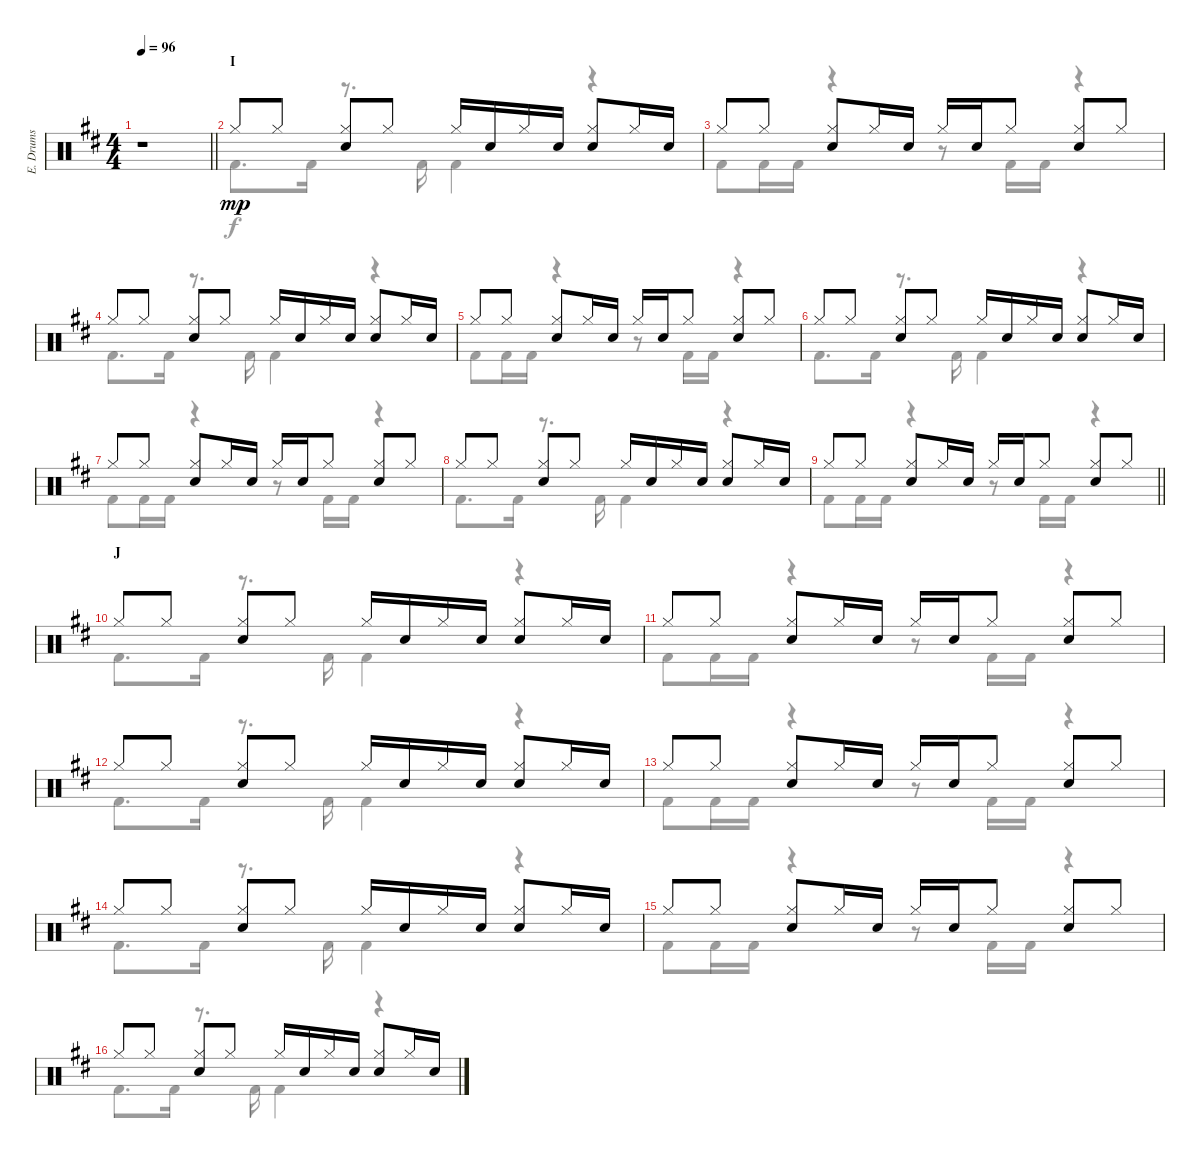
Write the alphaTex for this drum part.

\track ("E. Drums" "E. Drums") {instrument percussion}
\staff {score}
\articulation defaults
\voice
\ts (4 4)
\tempo 96
\clef neutral
\barLineRight lightlight
\ks d
r.1{dy mp} |
\section ("" "I")
"Hi-Hat (closed)".8 "Hi-Hat (closed)".8 ("Hi-Hat (closed)" "Electric Snare (hit)").8 "Hi-Hat (closed)".8 "Hi-Hat (closed)".16 "Electric Snare (hit)".16 "Hi-Hat (closed)".16 "Electric Snare (hit)".16 ("Hi-Hat (closed)" "Electric Snare (hit)").8 "Hi-Hat (closed)".16 "Electric Snare (hit)".16 |
"Hi-Hat (closed)".8 "Hi-Hat (closed)".8 ("Hi-Hat (closed)" "Electric Snare (hit)").8 "Hi-Hat (closed)".16 "Electric Snare (hit)".16 "Hi-Hat (closed)".16 "Electric Snare (hit)".16 "Hi-Hat (closed)".8 ("Hi-Hat (closed)" "Electric Snare (hit)").8 "Hi-Hat (closed)".8 |
"Hi-Hat (closed)".8 "Hi-Hat (closed)".8 ("Hi-Hat (closed)" "Electric Snare (hit)").8 "Hi-Hat (closed)".8 "Hi-Hat (closed)".16 "Electric Snare (hit)".16 "Hi-Hat (closed)".16 "Electric Snare (hit)".16 ("Hi-Hat (closed)" "Electric Snare (hit)").8 "Hi-Hat (closed)".16 "Electric Snare (hit)".16 |
"Hi-Hat (closed)".8 "Hi-Hat (closed)".8 ("Hi-Hat (closed)" "Electric Snare (hit)").8 "Hi-Hat (closed)".16 "Electric Snare (hit)".16 "Hi-Hat (closed)".16 "Electric Snare (hit)".16 "Hi-Hat (closed)".8 ("Hi-Hat (closed)" "Electric Snare (hit)").8 "Hi-Hat (closed)".8 |
"Hi-Hat (closed)".8 "Hi-Hat (closed)".8 ("Hi-Hat (closed)" "Electric Snare (hit)").8 "Hi-Hat (closed)".8 "Hi-Hat (closed)".16 "Electric Snare (hit)".16 "Hi-Hat (closed)".16 "Electric Snare (hit)".16 ("Hi-Hat (closed)" "Electric Snare (hit)").8 "Hi-Hat (closed)".16 "Electric Snare (hit)".16 |
"Hi-Hat (closed)".8 "Hi-Hat (closed)".8 ("Hi-Hat (closed)" "Electric Snare (hit)").8 "Hi-Hat (closed)".16 "Electric Snare (hit)".16 "Hi-Hat (closed)".16 "Electric Snare (hit)".16 "Hi-Hat (closed)".8 ("Hi-Hat (closed)" "Electric Snare (hit)").8 "Hi-Hat (closed)".8 |
"Hi-Hat (closed)".8 "Hi-Hat (closed)".8 ("Hi-Hat (closed)" "Electric Snare (hit)").8 "Hi-Hat (closed)".8 "Hi-Hat (closed)".16 "Electric Snare (hit)".16 "Hi-Hat (closed)".16 "Electric Snare (hit)".16 ("Hi-Hat (closed)" "Electric Snare (hit)").8 "Hi-Hat (closed)".16 "Electric Snare (hit)".16 |
\barLineRight lightlight "Hi-Hat (closed)".8 "Hi-Hat (closed)".8
("Hi-Hat (closed)" "Electric Snare (hit)").8 "Hi-Hat (closed)".16 "Electric Snare (hit)".16 "Hi-Hat (closed)".16 "Electric Snare (hit)".16 "Hi-Hat (closed)".8 ("Hi-Hat (closed)" "Electric Snare (hit)").8 "Hi-Hat (closed)".8 |
\section ("" "J")
"Hi-Hat (closed)".8 "Hi-Hat (closed)".8 ("Hi-Hat (closed)" "Electric Snare (hit)").8 "Hi-Hat (closed)".8 "Hi-Hat (closed)".16 "Electric Snare (hit)".16 "Hi-Hat (closed)".16 "Electric Snare (hit)".16 ("Hi-Hat (closed)" "Electric Snare (hit)").8 "Hi-Hat (closed)".16 "Electric Snare (hit)".16 |
"Hi-Hat (closed)".8 "Hi-Hat (closed)".8 ("Hi-Hat (closed)" "Electric Snare (hit)").8 "Hi-Hat (closed)".16 "Electric Snare (hit)".16 "Hi-Hat (closed)".16 "Electric Snare (hit)".16 "Hi-Hat (closed)".8 ("Hi-Hat (closed)" "Electric Snare (hit)").8 "Hi-Hat (closed)".8 |
"Hi-Hat (closed)".8 "Hi-Hat (closed)".8 ("Hi-Hat (closed)" "Electric Snare (hit)").8 "Hi-Hat (closed)".8 "Hi-Hat (closed)".16 "Electric Snare (hit)".16 "Hi-Hat (closed)".16 "Electric Snare (hit)".16 ("Hi-Hat (closed)" "Electric Snare (hit)").8 "Hi-Hat (closed)".16 "Electric Snare (hit)".16 |
"Hi-Hat (closed)".8 "Hi-Hat (closed)".8 ("Hi-Hat (closed)" "Electric Snare (hit)").8 "Hi-Hat (closed)".16 "Electric Snare (hit)".16 "Hi-Hat (closed)".16 "Electric Snare (hit)".16 "Hi-Hat (closed)".8 ("Hi-Hat (closed)" "Electric Snare (hit)").8 "Hi-Hat (closed)".8 |
"Hi-Hat (closed)".8 "Hi-Hat (closed)".8 ("Hi-Hat (closed)" "Electric Snare (hit)").8 "Hi-Hat (closed)".8 "Hi-Hat (closed)".16 "Electric Snare (hit)".16 "Hi-Hat (closed)".16 "Electric Snare (hit)".16 ("Hi-Hat (closed)" "Electric Snare (hit)").8 "Hi-Hat (closed)".16 "Electric Snare (hit)".16 |
"Hi-Hat (closed)".8 "Hi-Hat (closed)".8 ("Hi-Hat (closed)" "Electric Snare (hit)").8 "Hi-Hat (closed)".16 "Electric Snare (hit)".16 "Hi-Hat (closed)".16 "Electric Snare (hit)".16 "Hi-Hat (closed)".8 ("Hi-Hat (closed)" "Electric Snare (hit)").8 "Hi-Hat (closed)".8 |
"Hi-Hat (closed)".8 "Hi-Hat (closed)".8 ("Hi-Hat (closed)" "Electric Snare (hit)").8 "Hi-Hat (closed)".8 "Hi-Hat (closed)".16 "Electric Snare (hit)".16 "Hi-Hat (closed)".16 "Electric Snare (hit)".16 ("Hi-Hat (closed)" "Electric Snare (hit)").8 "Hi-Hat (closed)".16 "Electric Snare (hit)".16
\voice
\clef neutral
\ottava regular
\simile none
\barLineRight lightlight
\ks d
r.1{dy f} |
"Kick (hit) 2".8{d} "Kick (hit) 2".16 r.8{d} "Kick (hit) 2".16 "Kick (hit) 2".4 r.4 |
"Kick (hit) 2".8 "Kick (hit) 2".16 "Kick (hit) 2".16 r.4 r.8 "Kick (hit) 2".16 "Kick (hit) 2".16 r.4 |
"Kick (hit) 2".8{d} "Kick (hit) 2".16 r.8{d} "Kick (hit) 2".16 "Kick (hit) 2".4 r.4 |
"Kick (hit) 2".8 "Kick (hit) 2".16 "Kick (hit) 2".16 r.4 r.8 "Kick (hit) 2".16 "Kick (hit) 2".16 r.4 |
"Kick (hit) 2".8{d} "Kick (hit) 2".16 r.8{d} "Kick (hit) 2".16 "Kick (hit) 2".4 r.4 |
"Kick (hit) 2".8 "Kick (hit) 2".16 "Kick (hit) 2".16 r.4 r.8 "Kick (hit) 2".16 "Kick (hit) 2".16 r.4 |
"Kick (hit) 2".8{d} "Kick (hit) 2".16 r.8{d} "Kick (hit) 2".16 "Kick (hit) 2".4 r.4 |
\barLineRight lightlight "Kick (hit) 2".8 "Kick (hit) 2".16 "Kick (hit) 2".16
r.4 r.8 "Kick (hit) 2".16 "Kick (hit) 2".16 r.4 |
"Kick (hit) 2".8{d} "Kick (hit) 2".16 r.8{d} "Kick (hit) 2".16 "Kick (hit) 2".4 r.4 |
"Kick (hit) 2".8 "Kick (hit) 2".16 "Kick (hit) 2".16 r.4 r.8 "Kick (hit) 2".16 "Kick (hit) 2".16 r.4 |
"Kick (hit) 2".8{d} "Kick (hit) 2".16 r.8{d} "Kick (hit) 2".16 "Kick (hit) 2".4 r.4 |
"Kick (hit) 2".8 "Kick (hit) 2".16 "Kick (hit) 2".16 r.4 r.8 "Kick (hit) 2".16 "Kick (hit) 2".16 r.4 |
"Kick (hit) 2".8{d} "Kick (hit) 2".16 r.8{d} "Kick (hit) 2".16 "Kick (hit) 2".4 r.4 |
"Kick (hit) 2".8 "Kick (hit) 2".16 "Kick (hit) 2".16 r.4 r.8 "Kick (hit) 2".16 "Kick (hit) 2".16 r.4 |
"Kick (hit) 2".8{d} "Kick (hit) 2".16 r.8{d} "Kick (hit) 2".16 "Kick (hit) 2".4 r.4
